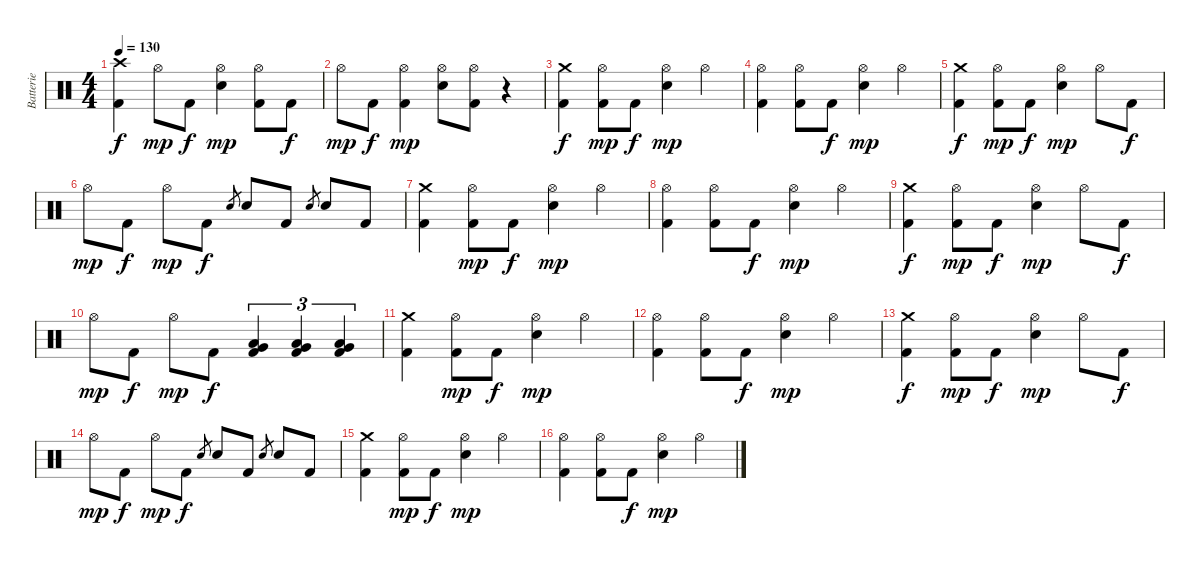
\track ("Batterie" "Batterie") {instrument percussion}
\staff {score}
\articulation defaults
\ts (4 4)
\tempo 130
\clef neutral
\ks c
("Crash high (hit)" "Kick (hit) 2").4{dy f} "Hi-Hat (open)".8{dy mp} "Kick (hit) 2".8{dy f} ("Hi-Hat (open)" "Electric Snare (hit)").4{dy mp} ("Hi-Hat (open)" "Kick (hit) 2").8 "Kick (hit) 2".8{dy f} |
"Hi-Hat (open)".8{dy mp} "Kick (hit) 2".8{dy f} ("Hi-Hat (open)" "Kick (hit) 2").4{dy mp} ("Hi-Hat (open)" "Electric Snare (hit)").8 ("Hi-Hat (open)" "Kick (hit) 2").8 r.4 |
("Crash medium (hit)" "Kick (hit) 2").4{dy f} ("Hi-Hat (open)" "Kick (hit) 2").8{dy mp} "Kick (hit) 2".8{dy f} ("Hi-Hat (open)" "Electric Snare (hit)").4{dy mp} "Hi-Hat (open)".4 |
("Hi-Hat (open)" "Kick (hit) 2").4 ("Hi-Hat (open)" "Kick (hit) 2").8 "Kick (hit) 2".8{dy f} ("Hi-Hat (open)" "Electric Snare (hit)").4{dy mp} "Hi-Hat (open)".4 |
("Crash medium (hit)" "Kick (hit) 2").4{dy f} ("Hi-Hat (open)" "Kick (hit) 2").8{dy mp} "Kick (hit) 2".8{dy f} ("Hi-Hat (open)" "Electric Snare (hit)").4{dy mp} "Hi-Hat (open)".8 "Kick (hit) 2".8{dy f} |
"Hi-Hat (open)".8{dy mp} "Kick (hit) 2".8{dy f} "Hi-Hat (open)".8{dy mp} "Kick (hit) 2".8{dy f} "Electric Snare (hit)".8{gr} "Electric Snare (hit)".8 "Kick (hit) 2".8 "Electric Snare (hit)".8{gr} "Electric Snare (hit)".8 "Kick (hit) 2".8 |
("Crash medium (hit)" "Kick (hit) 2").4 ("Hi-Hat (open)" "Kick (hit) 2").8{dy mp} "Kick (hit) 2".8{dy f} ("Hi-Hat (open)" "Electric Snare (hit)").4{dy mp} "Hi-Hat (open)".4 |
("Hi-Hat (open)" "Kick (hit) 2").4 ("Hi-Hat (open)" "Kick (hit) 2").8 "Kick (hit) 2".8{dy f} ("Hi-Hat (open)" "Electric Snare (hit)").4{dy mp} "Hi-Hat (open)".4 |
("Crash medium (hit)" "Kick (hit) 2").4{dy f} ("Hi-Hat (open)" "Kick (hit) 2").8{dy mp} "Kick (hit) 2".8{dy f} ("Hi-Hat (open)" "Electric Snare (hit)").4{dy mp} "Hi-Hat (open)".8 "Kick (hit) 2".8{dy f} |
"Hi-Hat (open)".8{dy mp} "Kick (hit) 2".8{dy f} "Hi-Hat (open)".8{dy mp} "Kick (hit) 2".8{dy f} ("Low Tom (hit)" "Very Low Tom (hit)" "Kick (hit) 2").4{tu (3 2)} ("Low Tom (hit)" "Very Low Tom (hit)" "Kick (hit) 2").4{tu (3 2)} ("Low Tom (hit)" "Very Low Tom (hit)" "Kick (hit) 2").4{tu (3 2)} |
("Crash medium (hit)" "Kick (hit) 2").4 ("Hi-Hat (open)" "Kick (hit) 2").8{dy mp} "Kick (hit) 2".8{dy f} ("Hi-Hat (open)" "Electric Snare (hit)").4{dy mp} "Hi-Hat (open)".4 |
("Hi-Hat (open)" "Kick (hit) 2").4 ("Hi-Hat (open)" "Kick (hit) 2").8 "Kick (hit) 2".8{dy f} ("Hi-Hat (open)" "Electric Snare (hit)").4{dy mp} "Hi-Hat (open)".4 |
("Crash medium (hit)" "Kick (hit) 2").4{dy f} ("Hi-Hat (open)" "Kick (hit) 2").8{dy mp} "Kick (hit) 2".8{dy f} ("Hi-Hat (open)" "Electric Snare (hit)").4{dy mp} "Hi-Hat (open)".8 "Kick (hit) 2".8{dy f} |
"Hi-Hat (open)".8{dy mp} "Kick (hit) 2".8{dy f} "Hi-Hat (open)".8{dy mp} "Kick (hit) 2".8{dy f} "Electric Snare (hit)".8{gr} "Electric Snare (hit)".8 "Kick (hit) 2".8 "Electric Snare (hit)".8{gr} "Electric Snare (hit)".8 "Kick (hit) 2".8 |
("Crash medium (hit)" "Kick (hit) 2").4 ("Hi-Hat (open)" "Kick (hit) 2").8{dy mp} "Kick (hit) 2".8{dy f} ("Hi-Hat (open)" "Electric Snare (hit)").4{dy mp} "Hi-Hat (open)".4 |
("Hi-Hat (open)" "Kick (hit) 2").4 ("Hi-Hat (open)" "Kick (hit) 2").8 "Kick (hit) 2".8{dy f} ("Hi-Hat (open)" "Electric Snare (hit)").4{dy mp} "Hi-Hat (open)".4
